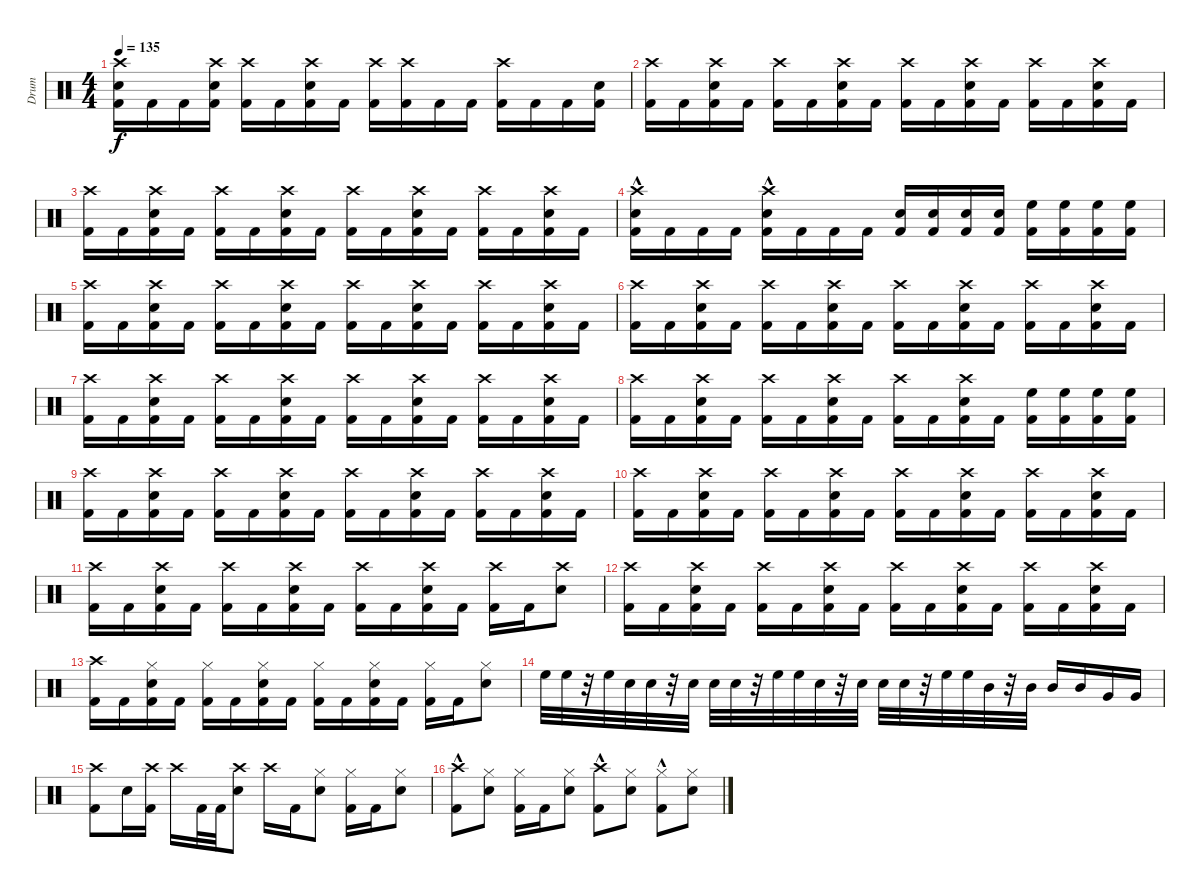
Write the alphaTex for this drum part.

\track ("Drum" "Drum") {instrument percussion}
\staff {score}
\articulation defaults
\ts (4 4)
\tempo 135
\clef neutral
\ks c
("Kick (hit) 2" "Snare (hit) 2" "Crash high (hit)").16{dy f} "Kick (hit) 2".16 "Kick (hit) 2".16 ("Kick (hit) 2" "Crash high (hit)" "Snare (hit) 2").16 ("Kick (hit) 2" "Crash high (hit)").16 "Kick (hit) 2".16 ("Kick (hit) 2" "Crash high (hit)" "Snare (hit) 2").16 "Kick (hit) 2".16 ("Kick (hit) 2" "Crash high (hit)").16 ("Kick (hit) 2" "Crash high (hit)").16 "Kick (hit) 2".16 "Kick (hit) 2".16 ("Kick (hit) 2" "Crash high (hit)").16 "Kick (hit) 2".16 "Kick (hit) 2".16 ("Kick (hit) 2" "Snare (hit) 2").16 |
("Kick (hit) 2" "Crash high (hit)").16 "Kick (hit) 2".16 ("Kick (hit) 2" "Crash high (hit)" "Snare (hit) 2").16 "Kick (hit) 2".16 ("Kick (hit) 2" "Crash high (hit)").16 "Kick (hit) 2".16 ("Kick (hit) 2" "Crash high (hit)" "Snare (hit) 2").16 "Kick (hit) 2".16 ("Kick (hit) 2" "Crash high (hit)").16 "Kick (hit) 2".16 ("Kick (hit) 2" "Crash high (hit)" "Snare (hit) 2").16 "Kick (hit) 2".16 ("Kick (hit) 2" "Crash high (hit)").16 "Kick (hit) 2".16 ("Kick (hit) 2" "Crash high (hit)" "Snare (hit) 2").16 "Kick (hit) 2".16 |
("Kick (hit) 2" "Crash high (hit)").16 "Kick (hit) 2".16 ("Kick (hit) 2" "Crash high (hit)" "Snare (hit) 2").16 "Kick (hit) 2".16 ("Kick (hit) 2" "Crash high (hit)").16 "Kick (hit) 2".16 ("Kick (hit) 2" "Crash high (hit)" "Snare (hit) 2").16 "Kick (hit) 2".16 ("Kick (hit) 2" "Crash high (hit)").16 "Kick (hit) 2".16 ("Kick (hit) 2" "Crash high (hit)" "Snare (hit) 2").16 "Kick (hit) 2".16 ("Kick (hit) 2" "Crash high (hit)").16 "Kick (hit) 2".16 ("Kick (hit) 2" "Crash high (hit)" "Snare (hit) 2").16 "Kick (hit) 2".16 |
("Kick (hit) 2" "Crash high (hit)"{hac} "Snare (hit) 2"{hac}).16 "Kick (hit) 2".16 "Kick (hit) 2".16 "Kick (hit) 2".16 ("Kick (hit) 2" "Crash high (hit)"{hac} "Snare (hit) 2"{hac}).16 "Kick (hit) 2".16 "Kick (hit) 2".16 "Kick (hit) 2".16 ("Kick (hit) 2" "Snare (hit) 2").16 ("Kick (hit) 2" "Snare (hit) 2").16 ("Kick (hit) 2" "Snare (hit) 2").16 ("Kick (hit) 2" "Snare (hit) 2").16 ("Kick (hit) 2" "High Floor Tom (hit)").16 ("Kick (hit) 2" "High Floor Tom (hit)").16 ("Kick (hit) 2" "High Floor Tom (hit)").16 ("Kick (hit) 2" "High Floor Tom (hit)").16 |
("Kick (hit) 2" "Crash high (hit)").16 "Kick (hit) 2".16 ("Kick (hit) 2" "Crash high (hit)" "Snare (hit) 2").16 "Kick (hit) 2".16 ("Kick (hit) 2" "Crash high (hit)").16 "Kick (hit) 2".16 ("Kick (hit) 2" "Crash high (hit)" "Snare (hit) 2").16 "Kick (hit) 2".16 ("Kick (hit) 2" "Crash high (hit)").16 "Kick (hit) 2".16 ("Kick (hit) 2" "Crash high (hit)" "Snare (hit) 2").16 "Kick (hit) 2".16 ("Kick (hit) 2" "Crash high (hit)").16 "Kick (hit) 2".16 ("Kick (hit) 2" "Crash high (hit)" "Snare (hit) 2").16 "Kick (hit) 2".16 |
("Kick (hit) 2" "Crash high (hit)").16 "Kick (hit) 2".16 ("Kick (hit) 2" "Crash high (hit)" "Snare (hit) 2").16 "Kick (hit) 2".16 ("Kick (hit) 2" "Crash high (hit)").16 "Kick (hit) 2".16 ("Kick (hit) 2" "Crash high (hit)" "Snare (hit) 2").16 "Kick (hit) 2".16 ("Kick (hit) 2" "Crash high (hit)").16 "Kick (hit) 2".16 ("Kick (hit) 2" "Crash high (hit)" "Snare (hit) 2").16 "Kick (hit) 2".16 ("Kick (hit) 2" "Crash high (hit)").16 "Kick (hit) 2".16 ("Kick (hit) 2" "Crash high (hit)" "Snare (hit) 2").16 "Kick (hit) 2".16 |
("Kick (hit) 2" "Crash high (hit)").16 "Kick (hit) 2".16 ("Kick (hit) 2" "Crash high (hit)" "Snare (hit) 2").16 "Kick (hit) 2".16 ("Kick (hit) 2" "Crash high (hit)").16 "Kick (hit) 2".16 ("Kick (hit) 2" "Crash high (hit)" "Snare (hit) 2").16 "Kick (hit) 2".16 ("Kick (hit) 2" "Crash high (hit)").16 "Kick (hit) 2".16 ("Kick (hit) 2" "Crash high (hit)" "Snare (hit) 2").16 "Kick (hit) 2".16 ("Kick (hit) 2" "Crash high (hit)").16 "Kick (hit) 2".16 ("Kick (hit) 2" "Crash high (hit)" "Snare (hit) 2").16 "Kick (hit) 2".16 |
("Kick (hit) 2" "Crash high (hit)").16 "Kick (hit) 2".16 ("Kick (hit) 2" "Crash high (hit)" "Snare (hit) 2").16 "Kick (hit) 2".16 ("Kick (hit) 2" "Crash high (hit)").16 "Kick (hit) 2".16 ("Kick (hit) 2" "Crash high (hit)" "Snare (hit) 2").16 "Kick (hit) 2".16 ("Kick (hit) 2" "Crash high (hit)").16 "Kick (hit) 2".16 ("Kick (hit) 2" "Crash high (hit)" "Snare (hit) 2").16 "Kick (hit) 2".16 ("Kick (hit) 2" "High Floor Tom (hit)").16 ("Kick (hit) 2" "High Floor Tom (hit)").16 ("Kick (hit) 2" "High Floor Tom (hit)").16 ("Kick (hit) 2" "High Floor Tom (hit)").16 |
("Kick (hit) 2" "Crash high (hit)").16 "Kick (hit) 2".16 ("Kick (hit) 2" "Crash high (hit)" "Snare (hit) 2").16 "Kick (hit) 2".16 ("Kick (hit) 2" "Crash high (hit)").16 "Kick (hit) 2".16 ("Kick (hit) 2" "Crash high (hit)" "Snare (hit) 2").16 "Kick (hit) 2".16 ("Kick (hit) 2" "Crash high (hit)").16 "Kick (hit) 2".16 ("Kick (hit) 2" "Crash high (hit)" "Snare (hit) 2").16 "Kick (hit) 2".16 ("Kick (hit) 2" "Crash high (hit)").16 "Kick (hit) 2".16 ("Kick (hit) 2" "Crash high (hit)" "Snare (hit) 2").16 "Kick (hit) 2".16 |
("Kick (hit) 2" "Crash high (hit)").16 "Kick (hit) 2".16 ("Kick (hit) 2" "Crash high (hit)" "Snare (hit) 2").16 "Kick (hit) 2".16 ("Kick (hit) 2" "Crash high (hit)").16 "Kick (hit) 2".16 ("Kick (hit) 2" "Crash high (hit)" "Snare (hit) 2").16 "Kick (hit) 2".16 ("Kick (hit) 2" "Crash high (hit)").16 "Kick (hit) 2".16 ("Kick (hit) 2" "Crash high (hit)" "Snare (hit) 2").16 "Kick (hit) 2".16 ("Kick (hit) 2" "Crash high (hit)").16 "Kick (hit) 2".16 ("Kick (hit) 2" "Crash high (hit)" "Snare (hit) 2").16 "Kick (hit) 2".16 |
("Kick (hit) 2" "Crash high (hit)").16 "Kick (hit) 2".16 ("Kick (hit) 2" "Crash high (hit)" "Snare (hit) 2").16 "Kick (hit) 2".16 ("Kick (hit) 2" "Crash high (hit)").16 "Kick (hit) 2".16 ("Kick (hit) 2" "Crash high (hit)" "Snare (hit) 2").16 "Kick (hit) 2".16 ("Kick (hit) 2" "Crash high (hit)").16 "Kick (hit) 2".16 ("Kick (hit) 2" "Crash high (hit)" "Snare (hit) 2").16 "Kick (hit) 2".16 ("Kick (hit) 2" "Crash high (hit)").16 "Kick (hit) 2".16 ("Crash high (hit)" "Snare (hit) 2").8 |
("Crash high (hit)" "Kick (hit) 2").16 "Kick (hit) 2".16 ("Crash high (hit)" "Snare (hit) 2" "Kick (hit) 2").16 "Kick (hit) 2".16 ("Crash high (hit)" "Kick (hit) 2").16 "Kick (hit) 2".16 ("Crash high (hit)" "Snare (hit) 2" "Kick (hit) 2").16 "Kick (hit) 2".16 ("Crash high (hit)" "Kick (hit) 2").16 "Kick (hit) 2".16 ("Crash high (hit)" "Snare (hit) 2" "Kick (hit) 2").16 "Kick (hit) 2".16 ("Crash high (hit)" "Kick (hit) 2").16 "Kick (hit) 2".16 ("Crash high (hit)" "Snare (hit) 2" "Kick (hit) 2").16 "Kick (hit) 2".16 |
("Crash high (hit)" "Kick (hit) 2").16 "Kick (hit) 2".16 ("Hi-Hat (closed)" "Snare (hit) 2" "Kick (hit) 2").16 "Kick (hit) 2".16 ("Hi-Hat (closed)" "Kick (hit) 2").16 "Kick (hit) 2".16 ("Hi-Hat (closed)" "Snare (hit) 2" "Kick (hit) 2").16 "Kick (hit) 2".16 ("Hi-Hat (closed)" "Kick (hit) 2").16 "Kick (hit) 2".16 ("Hi-Hat (closed)" "Snare (hit) 2" "Kick (hit) 2").16 "Kick (hit) 2".16 ("Hi-Hat (closed)" "Kick (hit) 2").16 "Kick (hit) 2".16 ("Hi-Hat (closed)" "Snare (hit) 2").8 |
"High Floor Tom (hit)".32 "High Floor Tom (hit)".32 r.32 "High Floor Tom (hit)".32 "Snare (hit) 2".32 "Snare (hit) 2".32 r.32 "Snare (hit) 2".32 "Snare (hit) 2".32 "Snare (hit) 2".32 r.32 "High Floor Tom (hit)".32 "High Floor Tom (hit)".32 "Snare (hit) 2".32 r.32 "Snare (hit) 2".32 "Snare (hit) 2".32 "Snare (hit) 2".32 r.32 "High Floor Tom (hit)".32 "High Floor Tom (hit)".32 "Mid Tom (hit)".32 r.32 "Mid Tom (hit)".32 "Mid Tom (hit)".16 "Mid Tom (hit)".16 "Very Low Tom (hit)".16 "Very Low Tom (hit)".16 |
("Crash high (hit)" "Kick (hit) 2").8 "Snare (hit) 2".16 ("Crash high (hit)" "Kick (hit) 2").16 "Crash high (hit)".16 "Kick (hit) 2".32 "Kick (hit) 2".32 ("Crash high (hit)" "Snare (hit) 2").8 "Crash high (hit)".16 "Kick (hit) 2".16 ("Hi-Hat (closed)" "Snare (hit) 2").8 ("Hi-Hat (closed)" "Kick (hit) 2").16 "Kick (hit) 2".16 ("Hi-Hat (closed)" "Snare (hit) 2").8 |
("Crash high (hit)" "Kick (hit) 2"{hac}).8 ("Hi-Hat (closed)" "Snare (hit) 2").8 ("Hi-Hat (closed)" "Kick (hit) 2").16 "Kick (hit) 2".16 ("Hi-Hat (closed)" "Snare (hit) 2").8 ("Crash high (hit)" "Kick (hit) 2"{hac}).8 ("Hi-Hat (closed)" "Snare (hit) 2").8 ("Hi-Hat (closed)" "Kick (hit) 2"{hac}).8 ("Hi-Hat (closed)" "Snare (hit) 2").8
